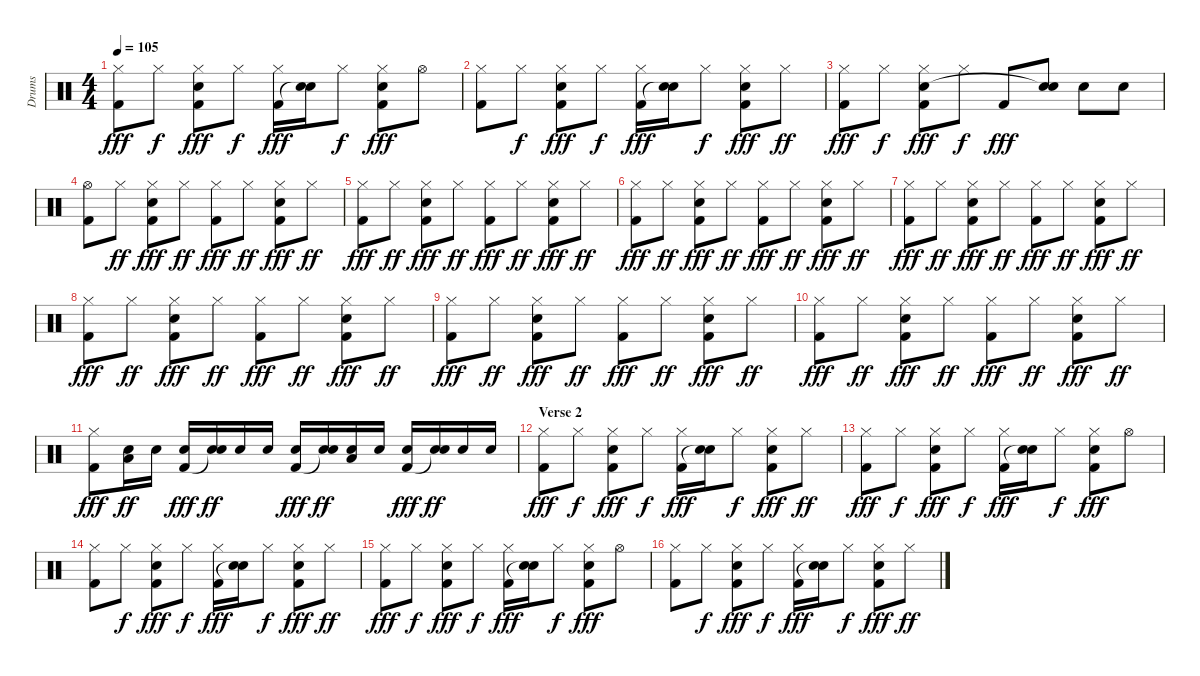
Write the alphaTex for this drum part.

\track ("Drums" "Drums") {instrument percussion}
\staff {score}
\articulation defaults
\ts (4 4)
\tempo 105
\clef neutral
\ks c
("Hi-Hat (closed)" "Kick (hit) 2").8{dy fff} "Hi-Hat (closed)".8{dy f} ("Hi-Hat (closed)" "Electric Snare (hit)" "Kick (hit) 2").8{dy fff} "Hi-Hat (closed)".8{dy f} ("Hi-Hat (closed)" "Kick (hit) 2").16{dy fff} ("Electric Snare (hit)" "Snare (hit)"{t}).16 "Hi-Hat (closed)".8{dy f} ("Hi-Hat (closed)" "Electric Snare (hit)" "Kick (hit) 2").8{dy fff} "Hi-Hat (open)".8 |
("Hi-Hat (closed)" "Kick (hit) 2").8 "Hi-Hat (closed)".8{dy f} ("Hi-Hat (closed)" "Electric Snare (hit)" "Kick (hit) 2").8{dy fff} "Hi-Hat (closed)".8{dy f} ("Hi-Hat (closed)" "Kick (hit) 2").16{dy fff} ("Electric Snare (hit)" "Snare (hit)"{t}).16 "Hi-Hat (closed)".8{dy f} ("Hi-Hat (closed)" "Electric Snare (hit)" "Kick (hit) 2").8{dy fff} "Hi-Hat (closed)".8{dy ff} |
("Hi-Hat (closed)" "Kick (hit) 2").8{dy fff} "Hi-Hat (closed)".8{dy f} ("Hi-Hat (closed)" "Electric Snare (hit)" "Kick (hit) 2").8{dy fff} "Hi-Hat (closed)".8{dy f} "Kick (hit) 2".8{dy fff} ("Electric Snare (hit)" "Snare (hit)"{t}).8 "Electric Snare (hit)".8 "Electric Snare (hit)".8 |
("Hi-Hat (open)" "Kick (hit) 2").8 "Hi-Hat (closed)".8{dy ff} ("Hi-Hat (closed)" "Electric Snare (hit)" "Kick (hit) 2").8{dy fff} "Hi-Hat (closed)".8{dy ff} ("Hi-Hat (closed)" "Kick (hit) 2").8{dy fff} "Hi-Hat (closed)".8{dy ff} ("Hi-Hat (closed)" "Electric Snare (hit)" "Kick (hit) 2").8{dy fff} "Hi-Hat (closed)".8{dy ff} |
("Hi-Hat (closed)" "Kick (hit) 2").8{dy fff} "Hi-Hat (closed)".8{dy ff} ("Hi-Hat (closed)" "Electric Snare (hit)" "Kick (hit) 2").8{dy fff} "Hi-Hat (closed)".8{dy ff} ("Hi-Hat (closed)" "Kick (hit) 2").8{dy fff} "Hi-Hat (closed)".8{dy ff} ("Hi-Hat (closed)" "Electric Snare (hit)" "Kick (hit) 2").8{dy fff} "Hi-Hat (closed)".8{dy ff} |
("Hi-Hat (closed)" "Kick (hit) 2").8{dy fff} "Hi-Hat (closed)".8{dy ff} ("Hi-Hat (closed)" "Electric Snare (hit)" "Kick (hit) 2").8{dy fff} "Hi-Hat (closed)".8{dy ff} ("Hi-Hat (closed)" "Kick (hit) 2").8{dy fff} "Hi-Hat (closed)".8{dy ff} ("Hi-Hat (closed)" "Electric Snare (hit)" "Kick (hit) 2").8{dy fff} "Hi-Hat (closed)".8{dy ff} |
("Hi-Hat (closed)" "Kick (hit) 2").8{dy fff} "Hi-Hat (closed)".8{dy ff} ("Hi-Hat (closed)" "Electric Snare (hit)" "Kick (hit) 2").8{dy fff} "Hi-Hat (closed)".8{dy ff} ("Hi-Hat (closed)" "Kick (hit) 2").8{dy fff} "Hi-Hat (closed)".8{dy ff} ("Hi-Hat (closed)" "Electric Snare (hit)" "Kick (hit) 2").8{dy fff} "Hi-Hat (closed)".8{dy ff} |
("Hi-Hat (closed)" "Kick (hit) 2").8{dy fff} "Hi-Hat (closed)".8{dy ff} ("Hi-Hat (closed)" "Electric Snare (hit)" "Kick (hit) 2").8{dy fff} "Hi-Hat (closed)".8{dy ff} ("Hi-Hat (closed)" "Kick (hit) 2").8{dy fff} "Hi-Hat (closed)".8{dy ff} ("Hi-Hat (closed)" "Electric Snare (hit)" "Kick (hit) 2").8{dy fff} "Hi-Hat (closed)".8{dy ff} |
("Hi-Hat (closed)" "Kick (hit) 2").8{dy fff} "Hi-Hat (closed)".8{dy ff} ("Hi-Hat (closed)" "Electric Snare (hit)" "Kick (hit) 2").8{dy fff} "Hi-Hat (closed)".8{dy ff} ("Hi-Hat (closed)" "Kick (hit) 2").8{dy fff} "Hi-Hat (closed)".8{dy ff} ("Hi-Hat (closed)" "Electric Snare (hit)" "Kick (hit) 2").8{dy fff} "Hi-Hat (closed)".8{dy ff} |
("Hi-Hat (closed)" "Kick (hit) 2").8{dy fff} "Hi-Hat (closed)".8{dy ff} ("Hi-Hat (closed)" "Electric Snare (hit)" "Kick (hit) 2").8{dy fff} "Hi-Hat (closed)".8{dy ff} ("Hi-Hat (closed)" "Kick (hit) 2").8{dy fff} "Hi-Hat (closed)".8{dy ff} ("Hi-Hat (closed)" "Electric Snare (hit)" "Kick (hit) 2").8{dy fff} "Hi-Hat (closed)".8{dy ff} |
("Hi-Hat (closed)" "Kick (hit) 2").8{dy fff} ("Low Tom (hit)" "Electric Snare (hit)").16{dy ff} "Electric Snare (hit)".16 ("Electric Snare (hit)" "Kick (hit) 2").16{dy fff} ("Electric Snare (hit)" "Snare (hit)"{t}).16{dy ff} "Electric Snare (hit)".16 "Electric Snare (hit)".16 ("Electric Snare (hit)" "Kick (hit) 2").16{dy fff} ("Electric Snare (hit)" "Snare (hit)"{t}).16{dy ff} ("Low Tom (hit)" "Electric Snare (hit)").16 "Electric Snare (hit)".16 ("Electric Snare (hit)" "Kick (hit) 2").16{dy fff} ("Electric Snare (hit)" "Snare (hit)"{t}).16{dy ff} "Electric Snare (hit)".16 "Electric Snare (hit)".16 |
\section ("" "Verse 2")
("Hi-Hat (closed)" "Kick (hit) 2").8{dy fff} "Hi-Hat (closed)".8{dy f} ("Hi-Hat (closed)" "Electric Snare (hit)" "Kick (hit) 2").8{dy fff} "Hi-Hat (closed)".8{dy f} ("Hi-Hat (closed)" "Kick (hit) 2").16{dy fff} ("Electric Snare (hit)" "Snare (hit)"{t}).16 "Hi-Hat (closed)".8{dy f} ("Hi-Hat (closed)" "Electric Snare (hit)" "Kick (hit) 2").8{dy fff} "Hi-Hat (closed)".8{dy ff} |
("Hi-Hat (closed)" "Kick (hit) 2").8{dy fff} "Hi-Hat (closed)".8{dy f} ("Hi-Hat (closed)" "Electric Snare (hit)" "Kick (hit) 2").8{dy fff} "Hi-Hat (closed)".8{dy f} ("Hi-Hat (closed)" "Kick (hit) 2").16{dy fff} ("Electric Snare (hit)" "Snare (hit)"{t}).16 "Hi-Hat (closed)".8{dy f} ("Hi-Hat (closed)" "Electric Snare (hit)" "Kick (hit) 2").8{dy fff} "Hi-Hat (open)".8 |
("Hi-Hat (closed)" "Kick (hit) 2").8 "Hi-Hat (closed)".8{dy f} ("Hi-Hat (closed)" "Electric Snare (hit)" "Kick (hit) 2").8{dy fff} "Hi-Hat (closed)".8{dy f} ("Hi-Hat (closed)" "Kick (hit) 2").16{dy fff} ("Electric Snare (hit)" "Snare (hit)"{t}).16 "Hi-Hat (closed)".8{dy f} ("Hi-Hat (closed)" "Electric Snare (hit)" "Kick (hit) 2").8{dy fff} "Hi-Hat (closed)".8{dy ff} |
("Hi-Hat (closed)" "Kick (hit) 2").8{dy fff} "Hi-Hat (closed)".8{dy f} ("Hi-Hat (closed)" "Electric Snare (hit)" "Kick (hit) 2").8{dy fff} "Hi-Hat (closed)".8{dy f} ("Hi-Hat (closed)" "Kick (hit) 2").16{dy fff} ("Electric Snare (hit)" "Snare (hit)"{t}).16 "Hi-Hat (closed)".8{dy f} ("Hi-Hat (closed)" "Electric Snare (hit)" "Kick (hit) 2").8{dy fff} "Hi-Hat (open)".8 |
("Hi-Hat (closed)" "Kick (hit) 2").8 "Hi-Hat (closed)".8{dy f} ("Hi-Hat (closed)" "Electric Snare (hit)" "Kick (hit) 2").8{dy fff} "Hi-Hat (closed)".8{dy f} ("Hi-Hat (closed)" "Kick (hit) 2").16{dy fff} ("Electric Snare (hit)" "Snare (hit)"{t}).16 "Hi-Hat (closed)".8{dy f} ("Hi-Hat (closed)" "Electric Snare (hit)" "Kick (hit) 2").8{dy fff} "Hi-Hat (closed)".8{dy ff}
